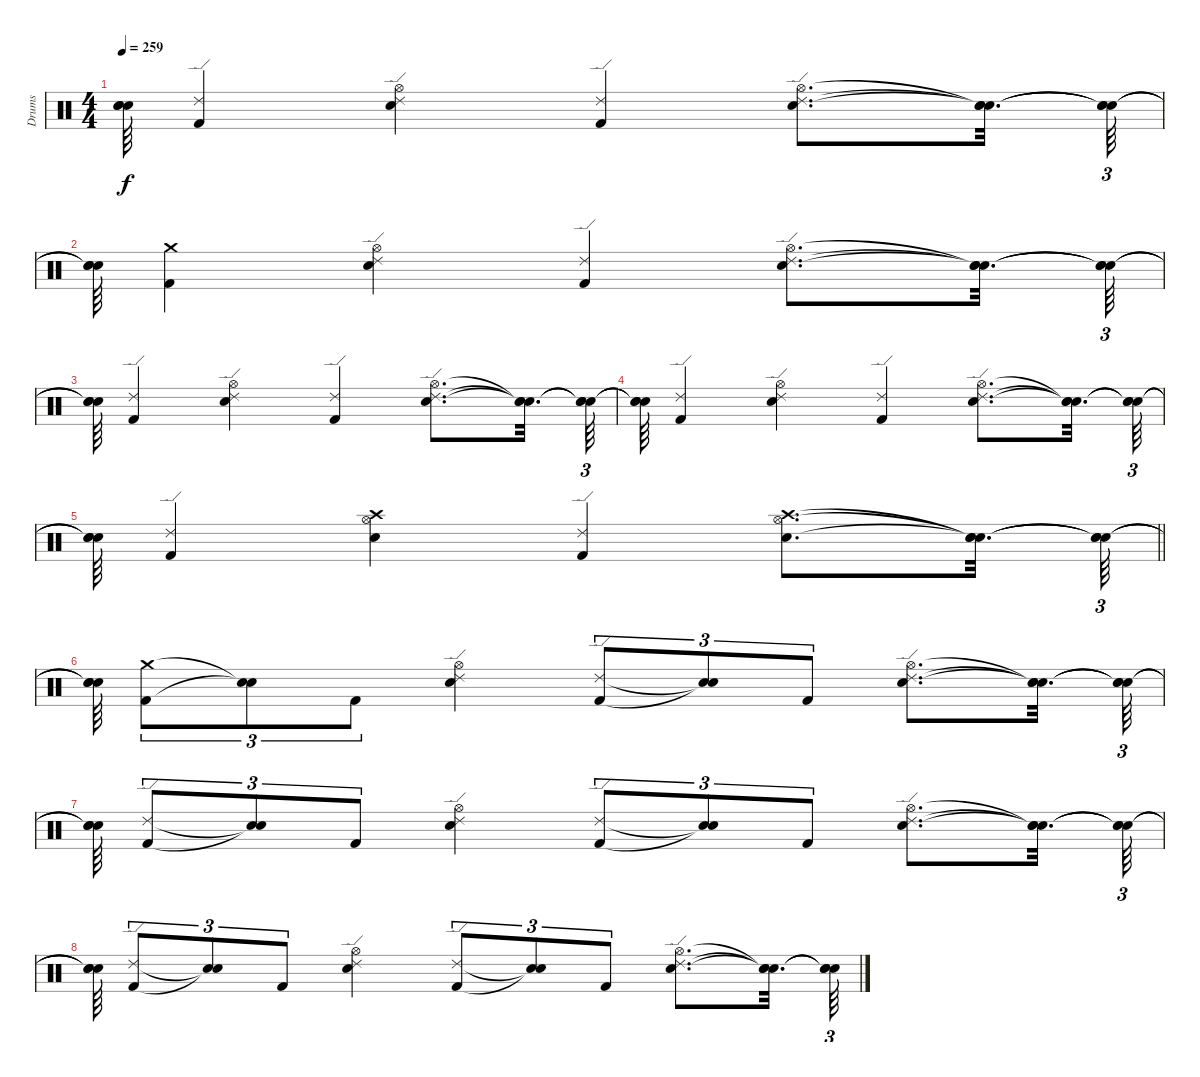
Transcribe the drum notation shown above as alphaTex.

\track ("Drums" "Drums") {instrument percussion}
\staff {score}
\articulation defaults
\ts (4 4)
\tempo 259
\clef neutral
\ks c
("Snare (hit)"{t} "Snare (hit)"{t} "Snare (hit)"{t}).64{dy f} ("Kick (hit) 2" "Ride (edge) 2").4 ("Electric Snare (hit)" "Ride (edge) 2" "Hi-Hat (open)").4 ("Kick (hit) 2" "Ride (edge) 2").4 ("Electric Snare (hit)" "Ride (edge) 2" "Hi-Hat (open)").8{d} ("Snare (hit)"{t} "Snare (hit)"{t} "Snare (hit)"{t}).32{d} ("Snare (hit)"{t} "Snare (hit)"{t} "Snare (hit)"{t}).64{tu (3 2)} |
("Snare (hit)"{t} "Snare (hit)"{t} "Snare (hit)"{t}).64 ("Kick (hit) 2" "Crash medium (hit)").4 ("Electric Snare (hit)" "Ride (edge) 2" "Hi-Hat (open)").4 ("Kick (hit) 2" "Ride (edge) 2").4 ("Electric Snare (hit)" "Ride (edge) 2" "Hi-Hat (open)").8{d} ("Snare (hit)"{t} "Snare (hit)"{t} "Snare (hit)"{t}).32{d} ("Snare (hit)"{t} "Snare (hit)"{t} "Snare (hit)"{t}).64{tu (3 2)} |
("Snare (hit)"{t} "Snare (hit)"{t} "Snare (hit)"{t}).64 ("Kick (hit) 2" "Ride (edge) 2").4 ("Electric Snare (hit)" "Ride (edge) 2" "Hi-Hat (open)").4 ("Kick (hit) 2" "Ride (edge) 2").4 ("Electric Snare (hit)" "Ride (edge) 2" "Hi-Hat (open)").8{d} ("Snare (hit)"{t} "Snare (hit)"{t} "Snare (hit)"{t}).32{d} ("Snare (hit)"{t} "Snare (hit)"{t} "Snare (hit)"{t}).64{tu (3 2)} |
("Snare (hit)"{t} "Snare (hit)"{t} "Snare (hit)"{t}).64 ("Kick (hit) 2" "Ride (edge) 2").4 ("Electric Snare (hit)" "Ride (edge) 2" "Hi-Hat (open)").4 ("Kick (hit) 2" "Ride (edge) 2").4 ("Electric Snare (hit)" "Ride (edge) 2" "Hi-Hat (open)").8{d} ("Snare (hit)"{t} "Snare (hit)"{t} "Snare (hit)"{t}).32{d} ("Snare (hit)"{t} "Snare (hit)"{t} "Snare (hit)"{t}).64{tu (3 2)} |
\barLineRight lightlight
("Snare (hit)"{t} "Snare (hit)"{t} "Snare (hit)"{t}).64 ("Kick (hit) 2" "Ride (edge) 2").4 ("Electric Snare (hit)" "Crash high (hit)" "Hi-Hat (open)").4 ("Kick (hit) 2" "Ride (edge) 2").4 ("Electric Snare (hit)" "Crash high (hit)" "Hi-Hat (open)").8{d} ("Snare (hit)"{t} "Snare (hit)"{t} "Snare (hit)"{t}).32{d} ("Snare (hit)"{t} "Snare (hit)"{t} "Snare (hit)"{t}).64{tu (3 2)} |
\section ("" "")
("Snare (hit)"{t} "Snare (hit)"{t} "Snare (hit)"{t}).64 ("Kick (hit) 2" "Crash medium (hit)").8{tu (3 2)} ("Snare (hit)"{t} "Snare (hit)"{t}).8{tu (3 2)} "Kick (hit) 2".8{tu (3 2)} ("Electric Snare (hit)" "Ride (edge) 2" "Hi-Hat (open)").4 ("Kick (hit) 2" "Ride (edge) 2").8{tu (3 2)} ("Snare (hit)"{t} "Snare (hit)"{t}).8{tu (3 2)} "Kick (hit) 2".8{tu (3 2)} ("Electric Snare (hit)" "Ride (edge) 2" "Hi-Hat (open)").8{d} ("Snare (hit)"{t} "Snare (hit)"{t} "Snare (hit)"{t}).32{d} ("Snare (hit)"{t} "Snare (hit)"{t} "Snare (hit)"{t}).64{tu (3 2)} |
("Snare (hit)"{t} "Snare (hit)"{t} "Snare (hit)"{t}).64 ("Kick (hit) 2" "Ride (edge) 2").8{tu (3 2)} ("Snare (hit)"{t} "Snare (hit)"{t}).8{tu (3 2)} "Kick (hit) 2".8{tu (3 2)} ("Electric Snare (hit)" "Ride (edge) 2" "Hi-Hat (open)").4 ("Kick (hit) 2" "Ride (edge) 2").8{tu (3 2)} ("Snare (hit)"{t} "Snare (hit)"{t}).8{tu (3 2)} "Kick (hit) 2".8{tu (3 2)} ("Electric Snare (hit)" "Ride (edge) 2" "Hi-Hat (open)").8{d} ("Snare (hit)"{t} "Snare (hit)"{t} "Snare (hit)"{t}).32{d} ("Snare (hit)"{t} "Snare (hit)"{t} "Snare (hit)"{t}).64{tu (3 2)} |
("Snare (hit)"{t} "Snare (hit)"{t} "Snare (hit)"{t}).64 ("Kick (hit) 2" "Ride (edge) 2").8{tu (3 2)} ("Snare (hit)"{t} "Snare (hit)"{t}).8{tu (3 2)} "Kick (hit) 2".8{tu (3 2)} ("Electric Snare (hit)" "Ride (edge) 2" "Hi-Hat (open)").4 ("Kick (hit) 2" "Ride (edge) 2").8{tu (3 2)} ("Snare (hit)"{t} "Snare (hit)"{t}).8{tu (3 2)} "Kick (hit) 2".8{tu (3 2)} ("Electric Snare (hit)" "Ride (edge) 2" "Hi-Hat (open)").8{d} ("Snare (hit)"{t} "Snare (hit)"{t} "Snare (hit)"{t}).32{d} ("Snare (hit)"{t} "Snare (hit)"{t} "Snare (hit)"{t}).64{tu (3 2)}
